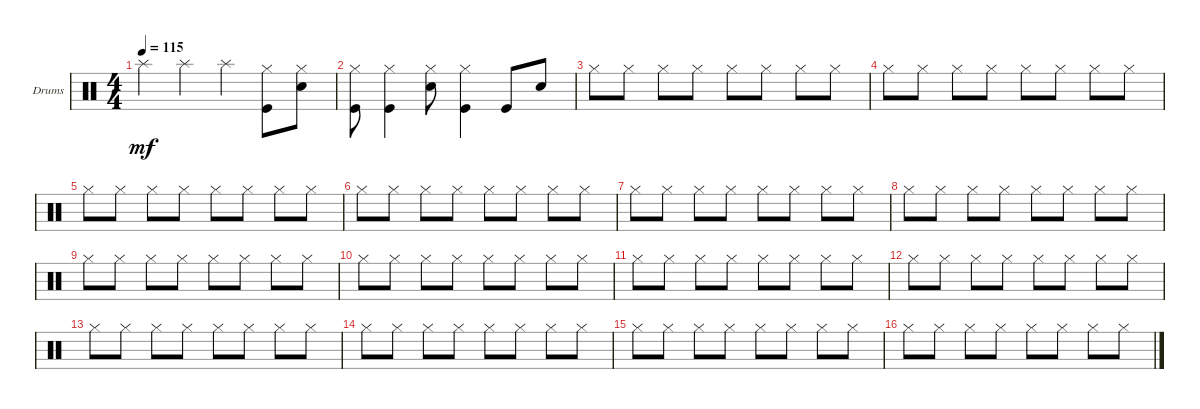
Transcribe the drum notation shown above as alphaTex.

\defaultSystemsLayout 4
\bracketExtendMode groupsimilarinstruments
\firstSystemTrackNameOrientation horizontal
\otherSystemsTrackNameOrientation horizontal
\track ("Drumkit" "Drums") {instrument percussion}
\staff {score}
\articulation defaults
\ts (4 4)
\tempo 115
\clef neutral
\ks c "Splash (hit)".4{dy mf} "Splash (hit)".4 "Splash (hit)".4
("Hi-Hat (closed)" "Kick (hit)").8 ("Hi-Hat (closed)" "Snare (hit) 2").8 |
("Hi-Hat (closed)" "Kick (hit)").8 ("Hi-Hat (closed)" "Kick (hit)").4 ("Hi-Hat (closed)" "Snare (hit) 2").8 ("Hi-Hat (closed)" "Kick (hit)").4 "Kick (hit)".8 "Snare (hit) 2".8 |
"Hi-Hat (closed)".8 "Hi-Hat (closed)".8 "Hi-Hat (closed)".8 "Hi-Hat (closed)".8 "Hi-Hat (closed)".8 "Hi-Hat (closed)".8 "Hi-Hat (closed)".8 "Hi-Hat (closed)".8 |
"Hi-Hat (closed)".8 "Hi-Hat (closed)".8 "Hi-Hat (closed)".8 "Hi-Hat (closed)".8 "Hi-Hat (closed)".8 "Hi-Hat (closed)".8 "Hi-Hat (closed)".8 "Hi-Hat (closed)".8 |
"Hi-Hat (closed)".8 "Hi-Hat (closed)".8 "Hi-Hat (closed)".8 "Hi-Hat (closed)".8 "Hi-Hat (closed)".8 "Hi-Hat (closed)".8 "Hi-Hat (closed)".8 "Hi-Hat (closed)".8 |
"Hi-Hat (closed)".8 "Hi-Hat (closed)".8 "Hi-Hat (closed)".8 "Hi-Hat (closed)".8 "Hi-Hat (closed)".8 "Hi-Hat (closed)".8 "Hi-Hat (closed)".8 "Hi-Hat (closed)".8 |
"Hi-Hat (closed)".8 "Hi-Hat (closed)".8 "Hi-Hat (closed)".8 "Hi-Hat (closed)".8 "Hi-Hat (closed)".8 "Hi-Hat (closed)".8 "Hi-Hat (closed)".8 "Hi-Hat (closed)".8 |
"Hi-Hat (closed)".8 "Hi-Hat (closed)".8 "Hi-Hat (closed)".8 "Hi-Hat (closed)".8 "Hi-Hat (closed)".8 "Hi-Hat (closed)".8 "Hi-Hat (closed)".8 "Hi-Hat (closed)".8 |
"Hi-Hat (closed)".8 "Hi-Hat (closed)".8 "Hi-Hat (closed)".8 "Hi-Hat (closed)".8 "Hi-Hat (closed)".8 "Hi-Hat (closed)".8 "Hi-Hat (closed)".8 "Hi-Hat (closed)".8 |
"Hi-Hat (closed)".8 "Hi-Hat (closed)".8 "Hi-Hat (closed)".8 "Hi-Hat (closed)".8 "Hi-Hat (closed)".8 "Hi-Hat (closed)".8 "Hi-Hat (closed)".8 "Hi-Hat (closed)".8 |
"Hi-Hat (closed)".8 "Hi-Hat (closed)".8 "Hi-Hat (closed)".8 "Hi-Hat (closed)".8 "Hi-Hat (closed)".8 "Hi-Hat (closed)".8 "Hi-Hat (closed)".8 "Hi-Hat (closed)".8 |
"Hi-Hat (closed)".8 "Hi-Hat (closed)".8 "Hi-Hat (closed)".8 "Hi-Hat (closed)".8 "Hi-Hat (closed)".8 "Hi-Hat (closed)".8 "Hi-Hat (closed)".8 "Hi-Hat (closed)".8 |
"Hi-Hat (closed)".8 "Hi-Hat (closed)".8 "Hi-Hat (closed)".8 "Hi-Hat (closed)".8 "Hi-Hat (closed)".8 "Hi-Hat (closed)".8 "Hi-Hat (closed)".8 "Hi-Hat (closed)".8 |
"Hi-Hat (closed)".8 "Hi-Hat (closed)".8 "Hi-Hat (closed)".8 "Hi-Hat (closed)".8 "Hi-Hat (closed)".8 "Hi-Hat (closed)".8 "Hi-Hat (closed)".8 "Hi-Hat (closed)".8 |
"Hi-Hat (closed)".8 "Hi-Hat (closed)".8 "Hi-Hat (closed)".8 "Hi-Hat (closed)".8 "Hi-Hat (closed)".8 "Hi-Hat (closed)".8 "Hi-Hat (closed)".8 "Hi-Hat (closed)".8 |
"Hi-Hat (closed)".8 "Hi-Hat (closed)".8 "Hi-Hat (closed)".8 "Hi-Hat (closed)".8 "Hi-Hat (closed)".8 "Hi-Hat (closed)".8 "Hi-Hat (closed)".8 "Hi-Hat (closed)".8
